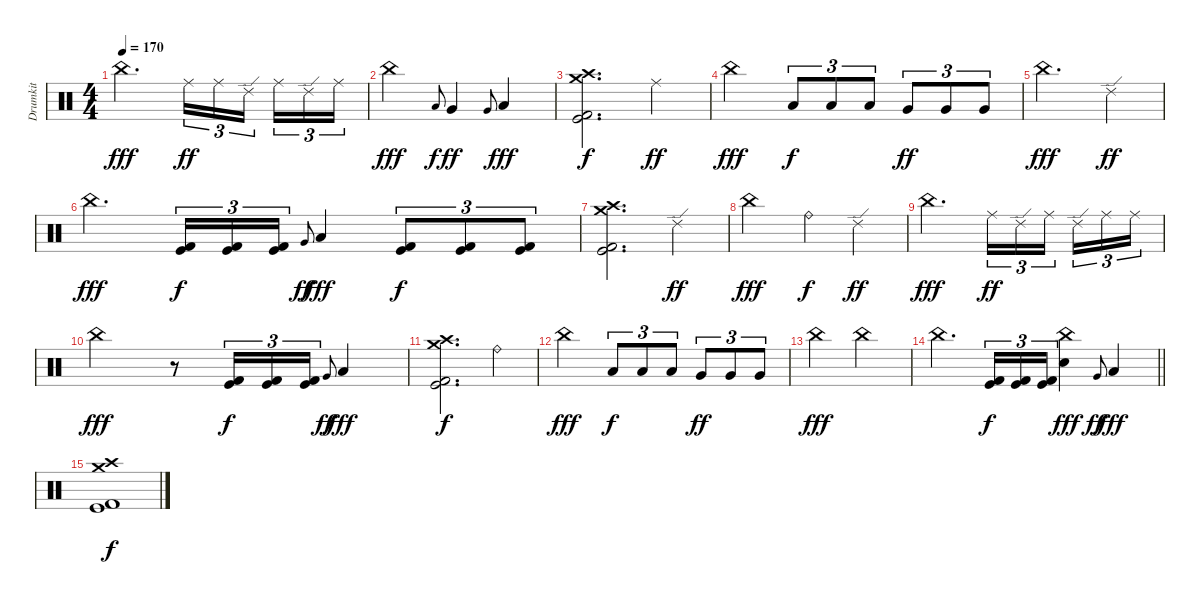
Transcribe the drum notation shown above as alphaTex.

\track ("Drumkit" "Drumkit") {instrument percussion}
\staff {score}
\articulation defaults
\ts (4 4)
\tempo 170
\clef neutral
\ks c "China (hit)".2{d dy fff} "Ride (middle)".16{tu (3 2) dy ff} "Ride (middle)".16{tu (3 2)} "Ride (edge) 2".16{tu (3 2) beam splitsecondary} "Ride (middle)".16{tu (3 2)} "Ride (edge) 2".16{tu (3 2)} "Ride (middle)".16{tu (3 2)}
|
"China (hit)".2{dy fff} "Low Tom (hit)".8{gr onbeat dy f} "Very Low Tom (hit)".4{dy ff} "Very Low Tom (hit)".8{gr onbeat} "Low Floor Tom (hit)".4{dy fff} |
("Crash high (hit)" "Crash medium (hit)" "Kick (hit)" "Kick (hit) 2").2{d dy f} "Ride (middle)".4{dy ff} |
"China (hit)".2{dy fff} "Low Tom (hit)".8{tu (3 2) dy f} "Low Tom (hit)".8{tu (3 2)} "Low Tom (hit)".8{tu (3 2)} "Very Low Tom (hit)".8{tu (3 2) dy ff} "Very Low Tom (hit)".8{tu (3 2)} "Very Low Tom (hit)".8{tu (3 2)} |
"China (hit)".2{d dy fff} "Ride (edge) 2".4{dy ff} |
"China (hit)".4{d dy fff} ("Kick (hit)" "Kick (hit) 2").16{tu (3 2) dy f} ("Kick (hit)" "Kick (hit) 2").16{tu (3 2)} ("Kick (hit)" "Kick (hit) 2").16{tu (3 2)} "Very Low Tom (hit)".8{gr onbeat dy ff} "Low Floor Tom (hit)".4{dy fff} ("Kick (hit)" "Kick (hit) 2").8{tu (3 2) dy f} ("Kick (hit)" "Kick (hit) 2").8{tu (3 2)} ("Kick (hit)" "Kick (hit) 2").8{tu (3 2)} |
("Crash high (hit)" "Crash medium (hit)" "Kick (hit)" "Kick (hit) 2").2{d} "Ride (edge) 2".4{dy ff} |
"China (hit)".2{dy fff} "Ride (bell)".4{dy f} "Ride (edge) 2".4{dy ff} |
"China (hit)".2{d dy fff} "Ride (middle)".16{tu (3 2) dy ff} "Ride (edge) 2".16{tu (3 2)} "Ride (middle)".16{tu (3 2) beam splitsecondary} "Ride (edge) 2".16{tu (3 2)} "Ride (middle)".16{tu (3 2)} "Ride (middle)".16{tu (3 2)} |
"China (hit)".2{dy fff} r.8 ("Kick (hit)" "Kick (hit) 2").16{tu (3 2) dy f} ("Kick (hit)" "Kick (hit) 2").16{tu (3 2)} ("Kick (hit)" "Kick (hit) 2").16{tu (3 2)} "Very Low Tom (hit)".8{gr onbeat dy ff} "Low Floor Tom (hit)".4{dy fff} |
("Crash high (hit)" "Crash medium (hit)" "Kick (hit)" "Kick (hit) 2").2{d dy f} "Ride (bell)".4 |
"China (hit)".2{dy fff} "Low Tom (hit)".8{tu (3 2) dy f} "Low Tom (hit)".8{tu (3 2)} "Low Tom (hit)".8{tu (3 2)} "Very Low Tom (hit)".8{tu (3 2) dy ff} "Very Low Tom (hit)".8{tu (3 2)} "Very Low Tom (hit)".8{tu (3 2)} |
"China (hit)".2{dy fff} "China (hit)".2 |
\barLineRight lightlight "China (hit)".4{d}
("Kick (hit)" "Kick (hit) 2").16{tu (3 2) dy f} ("Kick (hit)" "Kick (hit) 2").16{tu (3 2)} ("Kick (hit)" "Kick (hit) 2").16{tu (3 2)} ("China (hit)" "Electric Snare (hit)").4{dy fff} "Very Low Tom (hit)".8{gr onbeat dy ff} "Low Floor Tom (hit)".4{dy fff} |
("Crash high (hit)" "Crash medium (hit)" "Kick (hit)" "Kick (hit) 2").1{dy f}
